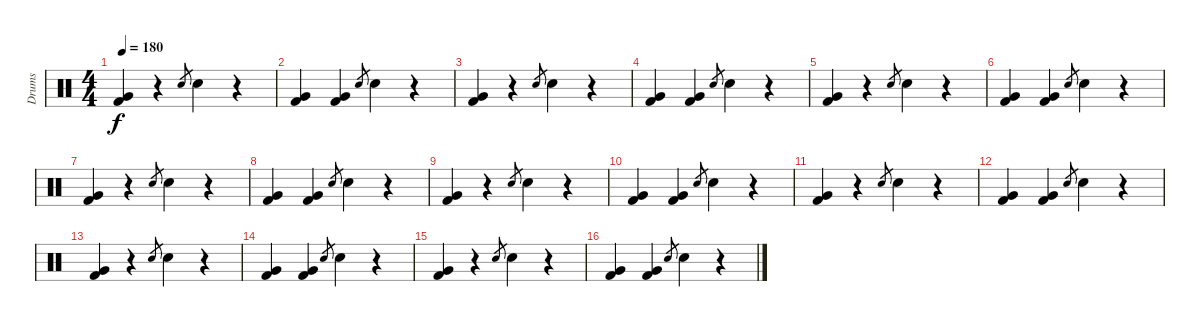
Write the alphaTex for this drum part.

\track ("Drums" "Drums") {instrument percussion}
\staff {score}
\articulation defaults
\ts (4 4)
\tempo 180
\clef neutral
\ks c
("Very Low Tom (hit)" "Kick (hit) 2").4{dy f} r.4 "Electric Snare (hit)".8{gr} "Electric Snare (hit)".4 r.4 |
("Very Low Tom (hit)" "Kick (hit) 2").4 ("Very Low Tom (hit)" "Kick (hit) 2").4 "Electric Snare (hit)".8{gr} "Electric Snare (hit)".4 r.4 |
("Very Low Tom (hit)" "Kick (hit) 2").4 r.4 "Electric Snare (hit)".8{gr} "Electric Snare (hit)".4 r.4 |
("Very Low Tom (hit)" "Kick (hit) 2").4 ("Very Low Tom (hit)" "Kick (hit) 2").4 "Electric Snare (hit)".8{gr} "Electric Snare (hit)".4 r.4 |
("Very Low Tom (hit)" "Kick (hit) 2").4 r.4 "Electric Snare (hit)".8{gr} "Electric Snare (hit)".4 r.4 |
("Very Low Tom (hit)" "Kick (hit) 2").4 ("Very Low Tom (hit)" "Kick (hit) 2").4 "Electric Snare (hit)".8{gr} "Electric Snare (hit)".4 r.4 |
("Very Low Tom (hit)" "Kick (hit) 2").4 r.4 "Electric Snare (hit)".8{gr} "Electric Snare (hit)".4 r.4 |
("Very Low Tom (hit)" "Kick (hit) 2").4 ("Very Low Tom (hit)" "Kick (hit) 2").4 "Electric Snare (hit)".8{gr} "Electric Snare (hit)".4 r.4 |
("Very Low Tom (hit)" "Kick (hit) 2").4 r.4 "Electric Snare (hit)".8{gr} "Electric Snare (hit)".4 r.4 |
("Very Low Tom (hit)" "Kick (hit) 2").4 ("Very Low Tom (hit)" "Kick (hit) 2").4 "Electric Snare (hit)".8{gr} "Electric Snare (hit)".4 r.4 |
("Very Low Tom (hit)" "Kick (hit) 2").4 r.4 "Electric Snare (hit)".8{gr} "Electric Snare (hit)".4 r.4 |
("Very Low Tom (hit)" "Kick (hit) 2").4 ("Very Low Tom (hit)" "Kick (hit) 2").4 "Electric Snare (hit)".8{gr} "Electric Snare (hit)".4 r.4 |
("Very Low Tom (hit)" "Kick (hit) 2").4 r.4 "Electric Snare (hit)".8{gr} "Electric Snare (hit)".4 r.4 |
("Very Low Tom (hit)" "Kick (hit) 2").4 ("Very Low Tom (hit)" "Kick (hit) 2").4 "Electric Snare (hit)".8{gr} "Electric Snare (hit)".4 r.4 |
("Very Low Tom (hit)" "Kick (hit) 2").4 r.4 "Electric Snare (hit)".8{gr} "Electric Snare (hit)".4 r.4 |
("Very Low Tom (hit)" "Kick (hit) 2").4 ("Very Low Tom (hit)" "Kick (hit) 2").4 "Electric Snare (hit)".8{gr} "Electric Snare (hit)".4 r.4
